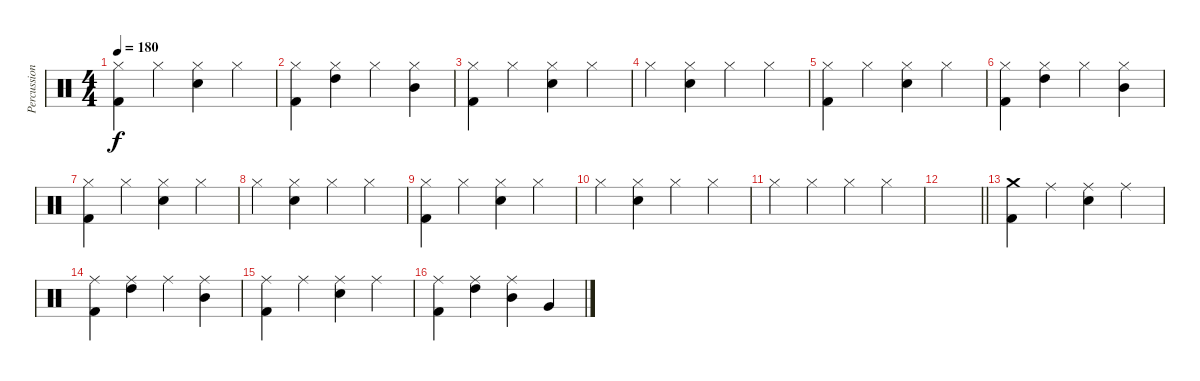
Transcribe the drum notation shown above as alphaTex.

\track ("Percussion" "Percussion") {instrument percussion}
\staff {score}
\articulation defaults
\ts (4 4)
\tempo 180
\clef neutral
\ks c
("Kick (hit) 2" "Hi-Hat (closed)").4{dy f} "Hi-Hat (closed)".4 ("Snare (hit) 2" "Hi-Hat (closed)").4 "Hi-Hat (closed)".4 |
("Kick (hit) 2" "Hi-Hat (closed)").4 ("High Tom (hit)" "Hi-Hat (closed)").4 "Hi-Hat (closed)".4 ("Mid Tom (hit)" "Hi-Hat (closed)").4 |
("Kick (hit) 2" "Hi-Hat (closed)").4 "Hi-Hat (closed)".4 ("Snare (hit) 2" "Hi-Hat (closed)").4 "Hi-Hat (closed)".4 |
"Hi-Hat (closed)".4 ("Snare (hit) 2" "Hi-Hat (closed)").4 "Hi-Hat (closed)".4 "Hi-Hat (closed)".4 |
("Kick (hit) 2" "Hi-Hat (closed)").4 "Hi-Hat (closed)".4 ("Snare (hit) 2" "Hi-Hat (closed)").4 "Hi-Hat (closed)".4 |
("Kick (hit) 2" "Hi-Hat (closed)").4 ("High Tom (hit)" "Hi-Hat (closed)").4 "Hi-Hat (closed)".4 ("Mid Tom (hit)" "Hi-Hat (closed)").4 |
("Kick (hit) 2" "Hi-Hat (closed)").4 "Hi-Hat (closed)".4 ("Snare (hit) 2" "Hi-Hat (closed)").4 "Hi-Hat (closed)".4 |
"Hi-Hat (closed)".4 ("Snare (hit) 2" "Hi-Hat (closed)").4 "Hi-Hat (closed)".4 "Hi-Hat (closed)".4 |
("Kick (hit) 2" "Hi-Hat (closed)").4 "Hi-Hat (closed)".4 ("Snare (hit) 2" "Hi-Hat (closed)").4 "Hi-Hat (closed)".4 |
"Hi-Hat (closed)".4 ("Snare (hit) 2" "Hi-Hat (closed)").4 "Hi-Hat (closed)".4 "Hi-Hat (closed)".4 |
"Hi-Hat (closed)".4 "Hi-Hat (closed)".4 "Hi-Hat (closed)".4 "Hi-Hat (closed)".4 |
\barLineRight lightlight
|
("Kick (hit) 2" "Crash medium (hit)").4 "Ride (middle)".4 ("Snare (hit) 2" "Ride (middle)").4 "Ride (middle)".4 |
("Kick (hit) 2" "Ride (middle)").4 ("High Tom (hit)" "Ride (middle)").4 "Ride (middle)".4 ("Mid Tom (hit)" "Ride (middle)").4 |
("Kick (hit) 2" "Ride (middle)").4 "Ride (middle)".4 ("Snare (hit) 2" "Ride (middle)").4 "Ride (middle)".4 |
("Kick (hit) 2" "Ride (middle)").4 ("High Tom (hit)" "Ride (middle)").4 ("Mid Tom (hit)" "Ride (middle)").4 "Very Low Tom (hit)".4
